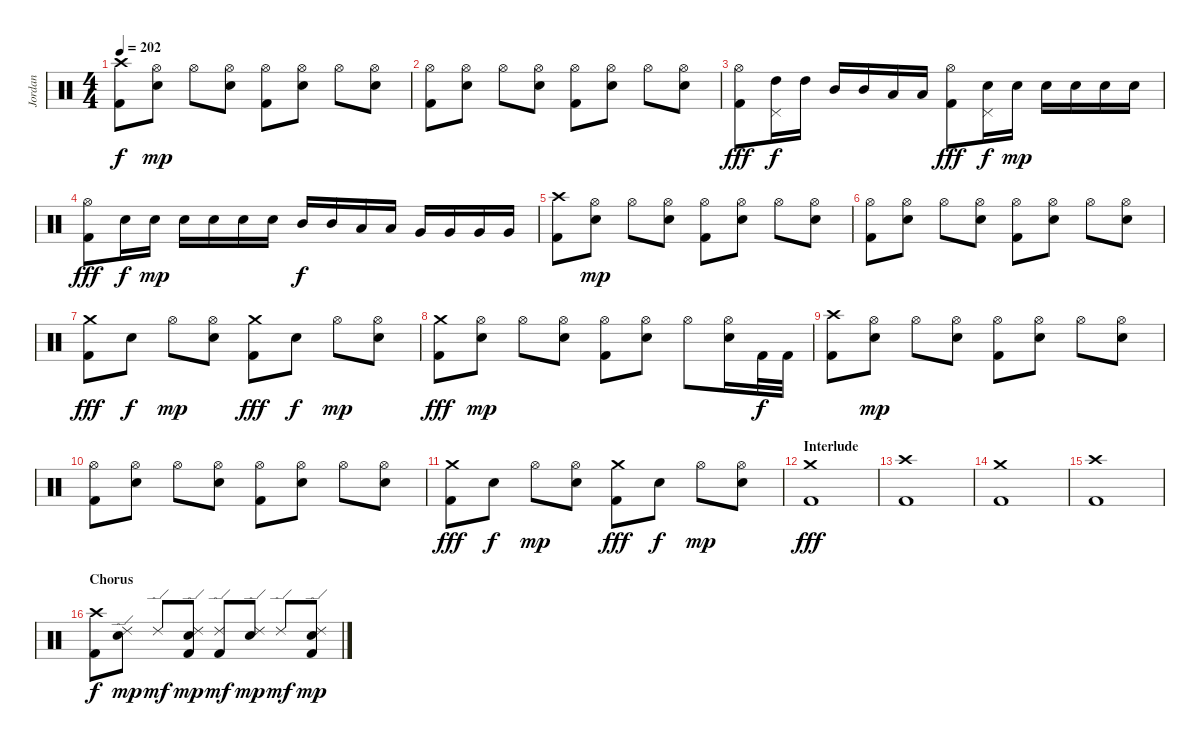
\track ("Jordan" "Jordan") {instrument percussion}
\staff {score}
\articulation defaults
\ts (4 4)
\tempo 202
\clef neutral
\ks c
("Crash high (hit)" "Kick (hit) 2").8{dy f} ("Hi-Hat (open)" "Electric Snare (hit)").8{dy mp} "Hi-Hat (open)".8 ("Hi-Hat (open)" "Electric Snare (hit)").8 ("Hi-Hat (open)" "Kick (hit) 2").8 ("Hi-Hat (open)" "Electric Snare (hit)").8 "Hi-Hat (open)".8 ("Hi-Hat (open)" "Electric Snare (hit)").8 |
("Hi-Hat (open)" "Kick (hit) 2").8 ("Hi-Hat (open)" "Electric Snare (hit)").8 "Hi-Hat (open)".8 ("Hi-Hat (open)" "Electric Snare (hit)").8 ("Hi-Hat (open)" "Kick (hit) 2").8 ("Hi-Hat (open)" "Electric Snare (hit)").8 "Hi-Hat (open)".8 ("Hi-Hat (open)" "Electric Snare (hit)").8 |
("Hi-Hat (open)" "Kick (hit) 2").8{dy fff} ("High Tom (hit)" "Pedal Hi-Hat (hit)").16{dy f} "High Tom (hit)".16 "Mid Tom (hit)".16 "Mid Tom (hit)".16 "Low Tom (hit)".16 "Low Tom (hit)".16 ("Hi-Hat (open)" "Kick (hit) 2").8{dy fff} ("Electric Snare (hit)" "Pedal Hi-Hat (hit)").16{dy f} "Electric Snare (hit)".16{dy mp} "Electric Snare (hit)".16 "Electric Snare (hit)".16 "Electric Snare (hit)".16 "Electric Snare (hit)".16 |
("Hi-Hat (open)" "Kick (hit) 2").8{dy fff} "Electric Snare (hit)".16{dy f} "Electric Snare (hit)".16{dy mp} "Electric Snare (hit)".16 "Electric Snare (hit)".16 "Electric Snare (hit)".16 "Electric Snare (hit)".16 "Mid Tom (hit)".16{dy f} "Mid Tom (hit)".16 "Low Tom (hit)".16 "Low Tom (hit)".16 "Very Low Tom (hit)".16 "Very Low Tom (hit)".16 "Very Low Tom (hit)".16 "Very Low Tom (hit)".16 |
("Crash high (hit)" "Kick (hit) 2").8 ("Hi-Hat (open)" "Electric Snare (hit)").8{dy mp} "Hi-Hat (open)".8 ("Hi-Hat (open)" "Electric Snare (hit)").8 ("Hi-Hat (open)" "Kick (hit) 2").8 ("Hi-Hat (open)" "Electric Snare (hit)").8 "Hi-Hat (open)".8 ("Hi-Hat (open)" "Electric Snare (hit)").8 |
("Hi-Hat (open)" "Kick (hit) 2").8 ("Hi-Hat (open)" "Electric Snare (hit)").8 "Hi-Hat (open)".8 ("Hi-Hat (open)" "Electric Snare (hit)").8 ("Hi-Hat (open)" "Kick (hit) 2").8 ("Hi-Hat (open)" "Electric Snare (hit)").8 "Hi-Hat (open)".8 ("Hi-Hat (open)" "Electric Snare (hit)").8 |
("Crash medium (hit)" "Kick (hit) 2").8{dy fff} "Electric Snare (hit)".8{dy f} "Hi-Hat (open)".8{dy mp} ("Hi-Hat (open)" "Electric Snare (hit)").8 ("Crash medium (hit)" "Kick (hit) 2").8{dy fff} "Electric Snare (hit)".8{dy f} "Hi-Hat (open)".8{dy mp} ("Hi-Hat (open)" "Electric Snare (hit)").8 |
("Crash medium (hit)" "Kick (hit) 2").8{dy fff} ("Hi-Hat (open)" "Electric Snare (hit)").8{dy mp} "Hi-Hat (open)".8 ("Hi-Hat (open)" "Electric Snare (hit)").8 ("Hi-Hat (open)" "Kick (hit) 2").8 ("Hi-Hat (open)" "Electric Snare (hit)").8 "Hi-Hat (open)".8 ("Hi-Hat (open)" "Electric Snare (hit)").16 "Kick (hit) 2".32{dy f} "Kick (hit) 2".32 |
("Crash high (hit)" "Kick (hit) 2").8 ("Hi-Hat (open)" "Electric Snare (hit)").8{dy mp} "Hi-Hat (open)".8 ("Hi-Hat (open)" "Electric Snare (hit)").8 ("Hi-Hat (open)" "Kick (hit) 2").8 ("Hi-Hat (open)" "Electric Snare (hit)").8 "Hi-Hat (open)".8 ("Hi-Hat (open)" "Electric Snare (hit)").8 |
("Hi-Hat (open)" "Kick (hit) 2").8 ("Hi-Hat (open)" "Electric Snare (hit)").8 "Hi-Hat (open)".8 ("Hi-Hat (open)" "Electric Snare (hit)").8 ("Hi-Hat (open)" "Kick (hit) 2").8 ("Hi-Hat (open)" "Electric Snare (hit)").8 "Hi-Hat (open)".8 ("Hi-Hat (open)" "Electric Snare (hit)").8 |
("Crash medium (hit)" "Kick (hit) 2").8{dy fff} "Electric Snare (hit)".8{dy f} "Hi-Hat (open)".8{dy mp} ("Hi-Hat (open)" "Electric Snare (hit)").8 ("Crash medium (hit)" "Kick (hit) 2").8{dy fff} "Electric Snare (hit)".8{dy f} "Hi-Hat (open)".8{dy mp} ("Hi-Hat (open)" "Electric Snare (hit)").8 |
\section ("" "Interlude")
("Crash medium (hit)" "Kick (hit) 2").1{dy fff} |
("Crash high (hit)" "Kick (hit) 2").1 |
("Crash medium (hit)" "Kick (hit) 2").1 |
("Crash high (hit)" "Kick (hit) 2").1 |
\section ("" "Chorus")
("Crash high (hit)" "Kick (hit) 2").8{dy f} ("Ride (edge) 2" "Electric Snare (hit)").8{dy mp} "Ride (edge) 2".8{dy mf} ("Ride (edge) 2" "Electric Snare (hit)" "Kick (hit) 2").8{dy mp} ("Ride (edge) 2" "Kick (hit) 2").8{dy mf} ("Ride (edge) 2" "Electric Snare (hit)").8{dy mp} "Ride (edge) 2".8{dy mf} ("Ride (edge) 2" "Electric Snare (hit)" "Kick (hit) 2").8{dy mp}
